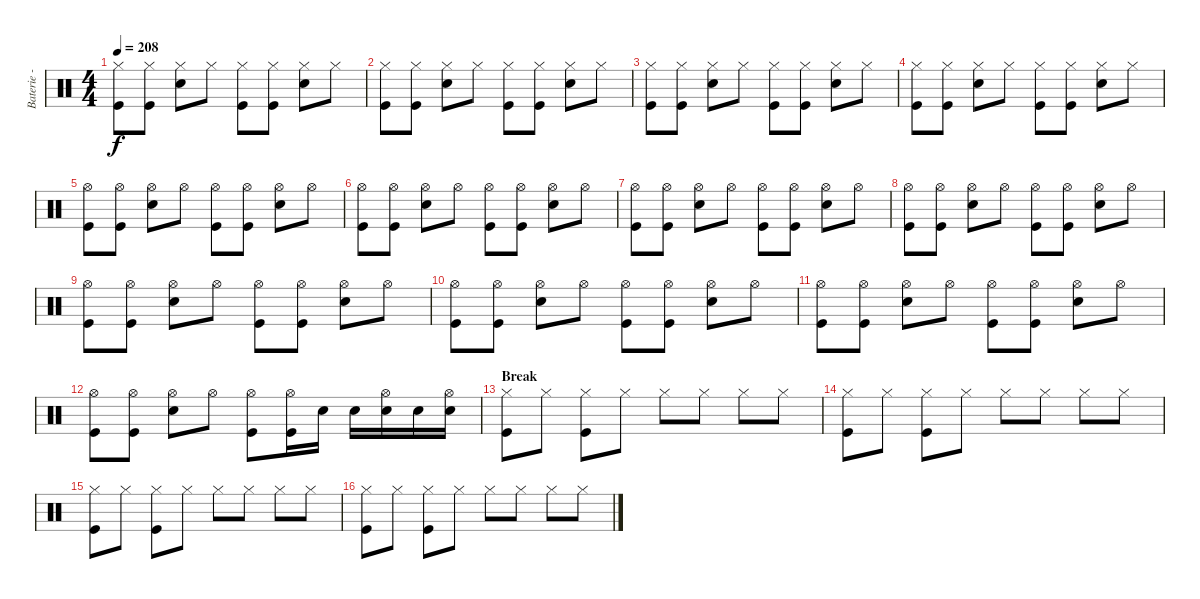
\track ("Baterie - Guillaume" "Baterie - ") {instrument percussion}
\staff {score}
\articulation defaults
\ts (4 4)
\tempo 208
\clef neutral
\ks c
("Hi-Hat (closed)" "Kick (hit)").8{dy f} ("Hi-Hat (closed)" "Kick (hit)").8 ("Hi-Hat (closed)" "Electric Snare (hit)").8 "Hi-Hat (closed)".8 ("Hi-Hat (closed)" "Kick (hit)").8 ("Hi-Hat (closed)" "Kick (hit)").8 ("Hi-Hat (closed)" "Electric Snare (hit)").8 "Hi-Hat (closed)".8 |
("Hi-Hat (closed)" "Kick (hit)").8 ("Hi-Hat (closed)" "Kick (hit)").8 ("Hi-Hat (closed)" "Electric Snare (hit)").8 "Hi-Hat (closed)".8 ("Hi-Hat (closed)" "Kick (hit)").8 ("Hi-Hat (closed)" "Kick (hit)").8 ("Hi-Hat (closed)" "Electric Snare (hit)").8 "Hi-Hat (closed)".8 |
("Hi-Hat (closed)" "Kick (hit)").8 ("Hi-Hat (closed)" "Kick (hit)").8 ("Hi-Hat (closed)" "Electric Snare (hit)").8 "Hi-Hat (closed)".8 ("Hi-Hat (closed)" "Kick (hit)").8 ("Hi-Hat (closed)" "Kick (hit)").8 ("Hi-Hat (closed)" "Electric Snare (hit)").8 "Hi-Hat (closed)".8 |
("Hi-Hat (closed)" "Kick (hit)").8 ("Hi-Hat (closed)" "Kick (hit)").8 ("Hi-Hat (closed)" "Electric Snare (hit)").8 "Hi-Hat (closed)".8 ("Hi-Hat (closed)" "Kick (hit)").8 ("Hi-Hat (closed)" "Kick (hit)").8 ("Hi-Hat (closed)" "Electric Snare (hit)").8 "Hi-Hat (closed)".8 |
("Hi-Hat (open)" "Kick (hit)").8 ("Hi-Hat (open)" "Kick (hit)").8 ("Hi-Hat (open)" "Electric Snare (hit)").8 "Hi-Hat (open)".8 ("Hi-Hat (open)" "Kick (hit)").8 ("Hi-Hat (open)" "Kick (hit)").8 ("Hi-Hat (open)" "Electric Snare (hit)").8 "Hi-Hat (open)".8 |
("Hi-Hat (open)" "Kick (hit)").8 ("Hi-Hat (open)" "Kick (hit)").8 ("Hi-Hat (open)" "Electric Snare (hit)").8 "Hi-Hat (open)".8 ("Hi-Hat (open)" "Kick (hit)").8 ("Hi-Hat (open)" "Kick (hit)").8 ("Hi-Hat (open)" "Electric Snare (hit)").8 "Hi-Hat (open)".8 |
("Hi-Hat (open)" "Kick (hit)").8 ("Hi-Hat (open)" "Kick (hit)").8 ("Hi-Hat (open)" "Electric Snare (hit)").8 "Hi-Hat (open)".8 ("Hi-Hat (open)" "Kick (hit)").8 ("Hi-Hat (open)" "Kick (hit)").8 ("Hi-Hat (open)" "Electric Snare (hit)").8 "Hi-Hat (open)".8 |
("Hi-Hat (open)" "Kick (hit)").8 ("Hi-Hat (open)" "Kick (hit)").8 ("Hi-Hat (open)" "Electric Snare (hit)").8 "Hi-Hat (open)".8 ("Hi-Hat (open)" "Kick (hit)").8 ("Hi-Hat (open)" "Kick (hit)").8 ("Hi-Hat (open)" "Electric Snare (hit)").8 "Hi-Hat (open)".8 |
("Hi-Hat (open)" "Kick (hit)").8 ("Hi-Hat (open)" "Kick (hit)").8 ("Hi-Hat (open)" "Electric Snare (hit)").8 "Hi-Hat (open)".8 ("Hi-Hat (open)" "Kick (hit)").8 ("Hi-Hat (open)" "Kick (hit)").8 ("Hi-Hat (open)" "Electric Snare (hit)").8 "Hi-Hat (open)".8 |
("Hi-Hat (open)" "Kick (hit)").8 ("Hi-Hat (open)" "Kick (hit)").8 ("Hi-Hat (open)" "Electric Snare (hit)").8 "Hi-Hat (open)".8 ("Hi-Hat (open)" "Kick (hit)").8 ("Hi-Hat (open)" "Kick (hit)").8 ("Hi-Hat (open)" "Electric Snare (hit)").8 "Hi-Hat (open)".8 |
("Hi-Hat (open)" "Kick (hit)").8 ("Hi-Hat (open)" "Kick (hit)").8 ("Hi-Hat (open)" "Electric Snare (hit)").8 "Hi-Hat (open)".8 ("Hi-Hat (open)" "Kick (hit)").8 ("Hi-Hat (open)" "Kick (hit)").8 ("Hi-Hat (open)" "Electric Snare (hit)").8 "Hi-Hat (open)".8 |
("Hi-Hat (open)" "Kick (hit)").8 ("Hi-Hat (open)" "Kick (hit)").8 ("Hi-Hat (open)" "Electric Snare (hit)").8 "Hi-Hat (open)".8 ("Hi-Hat (open)" "Kick (hit)").8 ("Hi-Hat (open)" "Kick (hit)").16 "Electric Snare (hit)".16 "Electric Snare (hit)".16 ("Hi-Hat (open)" "Electric Snare (hit)").16 "Electric Snare (hit)".16 ("Hi-Hat (open)" "Electric Snare (hit)").16 |
\section ("" "Break")
("Hi-Hat (closed)" "Kick (hit)").8 "Hi-Hat (closed)".8 ("Hi-Hat (closed)" "Kick (hit)").8 "Hi-Hat (closed)".8 "Hi-Hat (closed)".8 "Hi-Hat (closed)".8 "Hi-Hat (closed)".8 "Hi-Hat (closed)".8 |
("Hi-Hat (closed)" "Kick (hit)").8 "Hi-Hat (closed)".8 ("Hi-Hat (closed)" "Kick (hit)").8 "Hi-Hat (closed)".8 "Hi-Hat (closed)".8 "Hi-Hat (closed)".8 "Hi-Hat (closed)".8 "Hi-Hat (closed)".8 |
("Hi-Hat (closed)" "Kick (hit)").8 "Hi-Hat (closed)".8 ("Hi-Hat (closed)" "Kick (hit)").8 "Hi-Hat (closed)".8 "Hi-Hat (closed)".8 "Hi-Hat (closed)".8 "Hi-Hat (closed)".8 "Hi-Hat (closed)".8 |
("Hi-Hat (closed)" "Kick (hit)").8 "Hi-Hat (closed)".8 ("Hi-Hat (closed)" "Kick (hit)").8 "Hi-Hat (closed)".8 "Hi-Hat (closed)".8 "Hi-Hat (closed)".8 "Hi-Hat (closed)".8 "Hi-Hat (closed)".8
